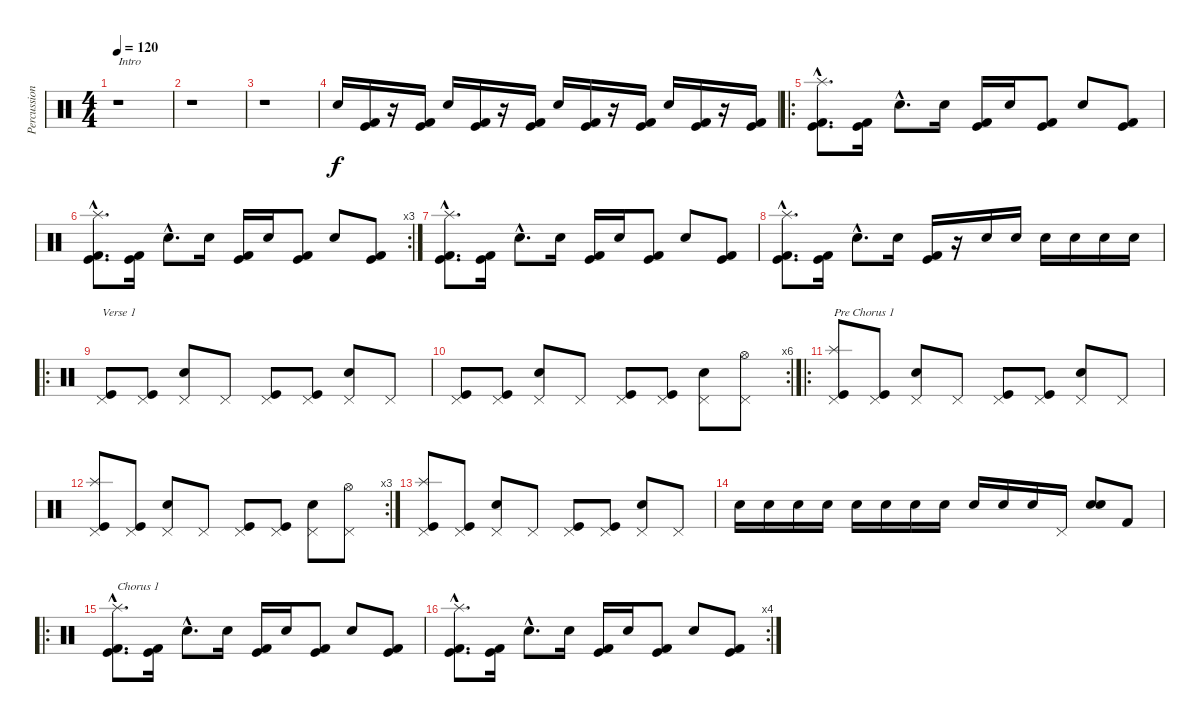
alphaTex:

\track ("Percussion" "Percussion") {instrument percussion}
\staff {score}
\articulation defaults
\ts (4 4)
\tempo 120
\clef neutral
\ks c
r.1{txt "Intro" dy f} |
r.1 |
r.1 |
"Electric Snare (hit)".16 ("Kick (hit) 2" "Kick (hit)").16 r.16 ("Kick (hit) 2" "Kick (hit)").16 "Electric Snare (hit)".16 ("Kick (hit) 2" "Kick (hit)").16 r.16 ("Kick (hit) 2" "Kick (hit)").16 "Electric Snare (hit)".16 ("Kick (hit) 2" "Kick (hit)").16 r.16 ("Kick (hit) 2" "Kick (hit)").16 "Electric Snare (hit)".16 ("Kick (hit) 2" "Kick (hit)").16 r.16 ("Kick (hit) 2" "Kick (hit)").16 |
\ro
("Splash (hit)"{hac} "Kick (hit)"{hac} "Kick (hit) 2"{hac}).8{d} ("Kick (hit)" "Kick (hit) 2").16 "Snare (hit) 2"{hac}.8{d} "Snare (hit) 2".16 ("Kick (hit)" "Kick (hit) 2").16 "Snare (hit) 2".16 ("Kick (hit)" "Kick (hit) 2").8 "Snare (hit) 2".8 ("Kick (hit)" "Kick (hit) 2").8 |
\rc 3
("Splash (hit)"{hac} "Kick (hit)"{hac} "Kick (hit) 2"{hac}).8{d} ("Kick (hit)" "Kick (hit) 2").16 "Snare (hit) 2"{hac}.8{d} "Snare (hit) 2".16 ("Kick (hit)" "Kick (hit) 2").16 "Snare (hit) 2".16 ("Kick (hit)" "Kick (hit) 2").8 "Snare (hit) 2".8 ("Kick (hit)" "Kick (hit) 2").8 |
("Splash (hit)"{hac} "Kick (hit)"{hac} "Kick (hit) 2"{hac}).8{d} ("Kick (hit)" "Kick (hit) 2").16 "Snare (hit) 2"{hac}.8{d} "Snare (hit) 2".16 ("Kick (hit)" "Kick (hit) 2").16 "Snare (hit) 2".16 ("Kick (hit)" "Kick (hit) 2").8 "Snare (hit) 2".8 ("Kick (hit)" "Kick (hit) 2").8 |
("Splash (hit)"{hac} "Kick (hit)"{hac} "Kick (hit) 2"{hac}).8{d} ("Kick (hit)" "Kick (hit) 2").16 "Snare (hit) 2"{hac}.8{d} "Snare (hit) 2".16 ("Kick (hit)" "Kick (hit) 2").16 r.16 "Snare (hit) 2".16 "Snare (hit) 2".16 "Snare (hit) 2".16 "Snare (hit) 2".16 "Snare (hit) 2".16 "Snare (hit) 2".16 |
\ro
("Pedal Hi-Hat (hit)" "Kick (hit)").8{txt "Verse 1"} ("Pedal Hi-Hat (hit)" "Kick (hit)").8 ("Pedal Hi-Hat (hit)" "Snare (hit) 2").8 "Pedal Hi-Hat (hit)".8 ("Pedal Hi-Hat (hit)" "Kick (hit)").8 ("Pedal Hi-Hat (hit)" "Kick (hit)").8 ("Pedal Hi-Hat (hit)" "Snare (hit) 2").8 "Pedal Hi-Hat (hit)".8 |
\rc 6
("Pedal Hi-Hat (hit)" "Kick (hit)").8 ("Pedal Hi-Hat (hit)" "Kick (hit)").8 ("Pedal Hi-Hat (hit)" "Snare (hit) 2").8 "Pedal Hi-Hat (hit)".8 ("Pedal Hi-Hat (hit)" "Kick (hit)").8 ("Pedal Hi-Hat (hit)" "Kick (hit)").8 ("Pedal Hi-Hat (hit)" "Snare (hit) 2").8 ("Pedal Hi-Hat (hit)" "Hi-Hat (open)").8 |
\ro
("Splash (hit)" "Pedal Hi-Hat (hit)" "Kick (hit)").8{txt "Pre Chorus 1"} ("Pedal Hi-Hat (hit)" "Kick (hit)").8 ("Pedal Hi-Hat (hit)" "Snare (hit) 2").8 "Pedal Hi-Hat (hit)".8 ("Pedal Hi-Hat (hit)" "Kick (hit)").8 ("Pedal Hi-Hat (hit)" "Kick (hit)").8 ("Pedal Hi-Hat (hit)" "Snare (hit) 2").8 "Pedal Hi-Hat (hit)".8 |
\rc 3
("Splash (hit)" "Pedal Hi-Hat (hit)" "Kick (hit)").8 ("Pedal Hi-Hat (hit)" "Kick (hit)").8 ("Pedal Hi-Hat (hit)" "Snare (hit) 2").8 "Pedal Hi-Hat (hit)".8 ("Pedal Hi-Hat (hit)" "Kick (hit)").8 ("Pedal Hi-Hat (hit)" "Kick (hit)").8 ("Pedal Hi-Hat (hit)" "Snare (hit) 2").8 ("Pedal Hi-Hat (hit)" "Hi-Hat (open)").8 |
("Splash (hit)" "Pedal Hi-Hat (hit)" "Kick (hit)").8 ("Pedal Hi-Hat (hit)" "Kick (hit)").8 ("Pedal Hi-Hat (hit)" "Snare (hit) 2").8 "Pedal Hi-Hat (hit)".8 ("Pedal Hi-Hat (hit)" "Kick (hit)").8 ("Pedal Hi-Hat (hit)" "Kick (hit)").8 ("Pedal Hi-Hat (hit)" "Snare (hit) 2").8 "Pedal Hi-Hat (hit)".8 |
"Snare (hit) 2".16 "Snare (hit) 2".16 "Snare (hit) 2".16 "Snare (hit) 2".16 "Snare (hit) 2".16 "Snare (hit) 2".16 "Snare (hit) 2".16 "Snare (hit) 2".16 "Snare (hit) 2".16 "Snare (hit) 2".16 "Snare (hit) 2".16 "Pedal Hi-Hat (hit)".16 ("Electric Snare (hit)" "Snare (hit) 2").8 "Kick (hit) 2".8 |
\ro
("Splash (hit)"{hac} "Kick (hit)"{hac} "Kick (hit) 2"{hac}).8{d txt "Chorus 1"} ("Kick (hit)" "Kick (hit) 2").16 "Snare (hit) 2"{hac}.8{d} "Snare (hit) 2".16 ("Kick (hit)" "Kick (hit) 2").16 "Snare (hit) 2".16 ("Kick (hit)" "Kick (hit) 2").8 "Snare (hit) 2".8 ("Kick (hit)" "Kick (hit) 2").8 |
\rc 4
("Splash (hit)"{hac} "Kick (hit)"{hac} "Kick (hit) 2"{hac}).8{d} ("Kick (hit)" "Kick (hit) 2").16 "Snare (hit) 2"{hac}.8{d} "Snare (hit) 2".16 ("Kick (hit)" "Kick (hit) 2").16 "Snare (hit) 2".16 ("Kick (hit)" "Kick (hit) 2").8 "Snare (hit) 2".8 ("Kick (hit)" "Kick (hit) 2").8
